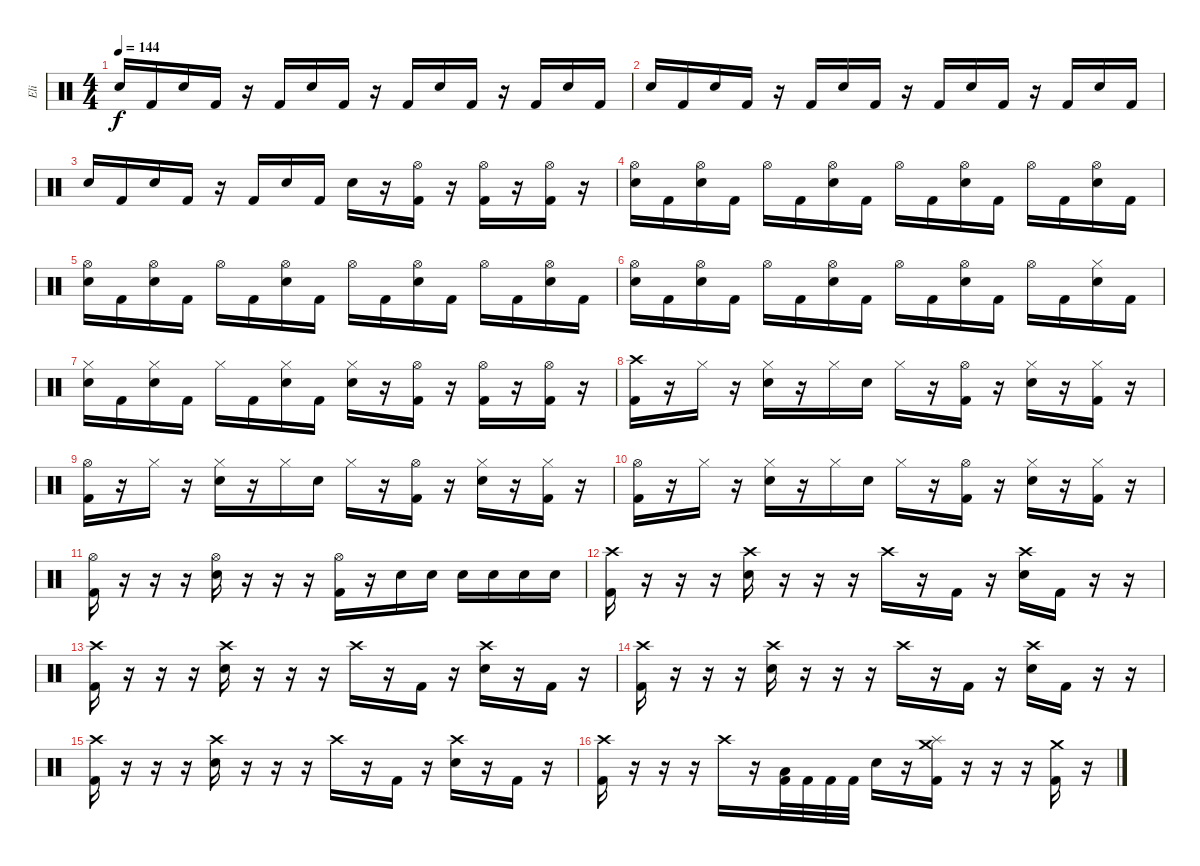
\track ("Eli" "Eli") {instrument percussion}
\staff {score}
\articulation defaults
\ts (4 4)
\tempo 144
\clef neutral
\ks c "Snare (hit) 2".16{dy f} "Kick (hit) 2".16 "Snare (hit) 2".16 "Kick (hit) 2".16
r.16 "Kick (hit) 2".16 "Snare (hit) 2".16 "Kick (hit) 2".16 r.16 "Kick (hit) 2".16 "Snare (hit) 2".16 "Kick (hit) 2".16 r.16 "Kick (hit) 2".16 "Snare (hit) 2".16 "Kick (hit) 2".16 |
"Snare (hit) 2".16 "Kick (hit) 2".16 "Snare (hit) 2".16 "Kick (hit) 2".16 r.16 "Kick (hit) 2".16 "Snare (hit) 2".16 "Kick (hit) 2".16 r.16 "Kick (hit) 2".16 "Snare (hit) 2".16 "Kick (hit) 2".16 r.16 "Kick (hit) 2".16 "Snare (hit) 2".16 "Kick (hit) 2".16 |
"Snare (hit) 2".16 "Kick (hit) 2".16 "Snare (hit) 2".16 "Kick (hit) 2".16 r.16 "Kick (hit) 2".16 "Snare (hit) 2".16 "Kick (hit) 2".16 "Snare (hit) 2".16 r.16 ("Hi-Hat (open)" "Kick (hit) 2").16 r.16 ("Hi-Hat (open)" "Kick (hit) 2").16 r.16 ("Hi-Hat (open)" "Kick (hit) 2").16 r.16 |
("Hi-Hat (open)" "Snare (hit) 2").16 "Kick (hit) 2".16 ("Hi-Hat (open)" "Snare (hit) 2").16 "Kick (hit) 2".16 "Hi-Hat (open)".16 "Kick (hit) 2".16 ("Hi-Hat (open)" "Snare (hit) 2").16 "Kick (hit) 2".16 "Hi-Hat (open)".16 "Kick (hit) 2".16 ("Hi-Hat (open)" "Snare (hit) 2").16 "Kick (hit) 2".16 "Hi-Hat (open)".16 "Kick (hit) 2".16 ("Hi-Hat (open)" "Snare (hit) 2").16 "Kick (hit) 2".16 |
("Hi-Hat (open)" "Snare (hit) 2").16 "Kick (hit) 2".16 ("Hi-Hat (open)" "Snare (hit) 2").16 "Kick (hit) 2".16 "Hi-Hat (open)".16 "Kick (hit) 2".16 ("Hi-Hat (open)" "Snare (hit) 2").16 "Kick (hit) 2".16 "Hi-Hat (open)".16 "Kick (hit) 2".16 ("Hi-Hat (open)" "Snare (hit) 2").16 "Kick (hit) 2".16 "Hi-Hat (open)".16 "Kick (hit) 2".16 ("Hi-Hat (open)" "Snare (hit) 2").16 "Kick (hit) 2".16 |
("Hi-Hat (open)" "Snare (hit) 2").16 "Kick (hit) 2".16 ("Hi-Hat (open)" "Snare (hit) 2").16 "Kick (hit) 2".16 "Hi-Hat (open)".16 "Kick (hit) 2".16 ("Hi-Hat (open)" "Snare (hit) 2").16 "Kick (hit) 2".16 "Hi-Hat (open)".16 "Kick (hit) 2".16 ("Hi-Hat (open)" "Snare (hit) 2").16 "Kick (hit) 2".16 "Hi-Hat (open)".16 "Kick (hit) 2".16 ("Hi-Hat (closed)" "Snare (hit) 2").16 "Kick (hit) 2".16 |
("Hi-Hat (closed)" "Snare (hit) 2").16 "Kick (hit) 2".16 ("Hi-Hat (closed)" "Snare (hit) 2").16 "Kick (hit) 2".16 "Hi-Hat (closed)".16 "Kick (hit) 2".16 ("Hi-Hat (closed)" "Snare (hit) 2").16 "Kick (hit) 2".16 ("Hi-Hat (closed)" "Snare (hit) 2").16 r.16 ("Hi-Hat (open)" "Kick (hit) 2").16 r.16 ("Hi-Hat (open)" "Kick (hit) 2").16 r.16 ("Hi-Hat (open)" "Kick (hit) 2").16 r.16 |
("Crash high (hit)" "Kick (hit) 2").16 r.16 "Hi-Hat (closed)".16 r.16 ("Hi-Hat (closed)" "Snare (hit) 2").16 r.16 "Hi-Hat (closed)".16 "Snare (hit) 2".16 "Hi-Hat (closed)".16 r.16 ("Hi-Hat (open)" "Kick (hit) 2").16 r.16 ("Hi-Hat (closed)" "Snare (hit) 2").16 r.16 ("Hi-Hat (closed)" "Kick (hit) 2").16 r.16 |
("Hi-Hat (open)" "Kick (hit) 2").16 r.16 "Hi-Hat (closed)".16 r.16 ("Hi-Hat (closed)" "Snare (hit) 2").16 r.16 "Hi-Hat (closed)".16 "Snare (hit) 2".16 "Hi-Hat (closed)".16 r.16 ("Hi-Hat (open)" "Kick (hit) 2").16 r.16 ("Hi-Hat (closed)" "Snare (hit) 2").16 r.16 ("Hi-Hat (closed)" "Kick (hit) 2").16 r.16 |
("Hi-Hat (open)" "Kick (hit) 2").16 r.16 "Hi-Hat (closed)".16 r.16 ("Hi-Hat (closed)" "Snare (hit) 2").16 r.16 "Hi-Hat (closed)".16 "Snare (hit) 2".16 "Hi-Hat (closed)".16 r.16 ("Hi-Hat (open)" "Kick (hit) 2").16 r.16 ("Hi-Hat (closed)" "Snare (hit) 2").16 r.16 ("Hi-Hat (closed)" "Kick (hit) 2").16 r.16 |
("Hi-Hat (open)" "Kick (hit) 2").16 r.16 r.16 r.16 ("Hi-Hat (open)" "Snare (hit) 2").16 r.16 r.16 r.16 ("Hi-Hat (open)" "Kick (hit) 2").16 r.16 "Snare (hit) 2".16 "Snare (hit) 2".16 "Snare (hit) 2".16 "Snare (hit) 2".16 "Snare (hit) 2".16 "Snare (hit) 2".16 |
("Crash high (hit)" "Kick (hit) 2").16 r.16 r.16 r.16 ("Crash high (hit)" "Snare (hit) 2").16 r.16 r.16 r.16 "Crash high (hit)".16 r.16 "Kick (hit) 2".16 r.16 ("Crash high (hit)" "Snare (hit) 2").16 "Kick (hit) 2".16 r.16 r.16 |
("Crash high (hit)" "Kick (hit) 2").16 r.16 r.16 r.16 ("Crash high (hit)" "Snare (hit) 2").16 r.16 r.16 r.16 "Crash high (hit)".16 r.16 "Kick (hit) 2".16 r.16 ("Crash high (hit)" "Snare (hit) 2").16 r.16 "Kick (hit) 2".16 r.16 |
("Crash high (hit)" "Kick (hit) 2").16 r.16 r.16 r.16 ("Crash high (hit)" "Snare (hit) 2").16 r.16 r.16 r.16 "Crash high (hit)".16 r.16 "Kick (hit) 2".16 r.16 ("Crash high (hit)" "Snare (hit) 2").16 "Kick (hit) 2".16 r.16 r.16 |
("Crash high (hit)" "Kick (hit) 2").16 r.16 r.16 r.16 ("Crash high (hit)" "Snare (hit) 2").16 r.16 r.16 r.16 "Crash high (hit)".16 r.16 "Kick (hit) 2".16 r.16 ("Crash high (hit)" "Snare (hit) 2").16 r.16 "Kick (hit) 2".16 r.16 |
("Crash high (hit)" "Kick (hit) 2").16 r.16 r.16 r.16 "Crash high (hit)".16 r.16 ("Low Floor Tom (hit)" "Kick (hit) 2").32 "Kick (hit) 2".32 "Kick (hit) 2".32 "Kick (hit) 2".32 "Snare (hit) 2".16 r.16 ("Crash medium (hit)" "Splash (hit)" "Kick (hit) 2").16 r.16 r.16 r.16 ("Crash medium (hit)" "Kick (hit) 2").16 r.16
